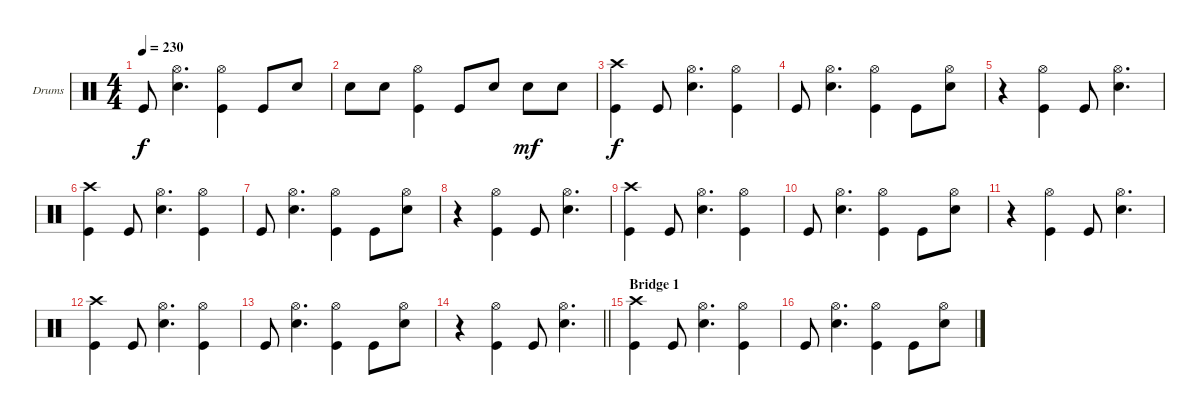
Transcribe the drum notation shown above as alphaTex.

\bracketExtendMode groupsimilarinstruments
\firstSystemTrackNameOrientation horizontal
\otherSystemsTrackNameOrientation horizontal
\track ("Drumkit" "Drums") {instrument percussion}
\staff {score}
\articulation defaults
\ts (4 4)
\tempo 230
\clef neutral
\ks c "Kick (hit)".8{dy f}
("Hi-Hat (open)" "Snare (hit) 2").4{d} ("Hi-Hat (open)" "Kick (hit)").4 "Kick (hit)".8 "Snare (hit) 2".8 |
"Snare (hit) 2".8 "Snare (hit) 2".8 ("Hi-Hat (open)" "Kick (hit)").4 "Kick (hit)".8 "Snare (hit) 2".8 "Snare (hit) 2".8{dy mf} "Snare (hit) 2".8 |
("Crash high (hit)" "Kick (hit)").4{dy f} "Kick (hit)".8 ("Hi-Hat (open)" "Snare (hit) 2").4{d} ("Hi-Hat (open)" "Kick (hit)").4 |
"Kick (hit)".8 ("Hi-Hat (open)" "Snare (hit) 2").4{d} ("Hi-Hat (open)" "Kick (hit)").4 "Kick (hit)".8 ("Hi-Hat (open)" "Snare (hit) 2").8 |
r.4 ("Hi-Hat (open)" "Kick (hit)").4 "Kick (hit)".8 ("Hi-Hat (open)" "Snare (hit) 2").4{d} |
("Crash high (hit)" "Kick (hit)").4 "Kick (hit)".8 ("Hi-Hat (open)" "Snare (hit) 2").4{d} ("Hi-Hat (open)" "Kick (hit)").4 |
"Kick (hit)".8 ("Hi-Hat (open)" "Snare (hit) 2").4{d} ("Hi-Hat (open)" "Kick (hit)").4 "Kick (hit)".8 ("Hi-Hat (open)" "Snare (hit) 2").8 |
r.4 ("Hi-Hat (open)" "Kick (hit)").4 "Kick (hit)".8 ("Hi-Hat (open)" "Snare (hit) 2").4{d} |
("Crash high (hit)" "Kick (hit)").4 "Kick (hit)".8 ("Hi-Hat (open)" "Snare (hit) 2").4{d} ("Hi-Hat (open)" "Kick (hit)").4 |
"Kick (hit)".8 ("Hi-Hat (open)" "Snare (hit) 2").4{d} ("Hi-Hat (open)" "Kick (hit)").4 "Kick (hit)".8 ("Hi-Hat (open)" "Snare (hit) 2").8 |
r.4 ("Hi-Hat (open)" "Kick (hit)").4 "Kick (hit)".8 ("Hi-Hat (open)" "Snare (hit) 2").4{d} |
("Crash high (hit)" "Kick (hit)").4 "Kick (hit)".8 ("Hi-Hat (open)" "Snare (hit) 2").4{d} ("Hi-Hat (open)" "Kick (hit)").4 |
"Kick (hit)".8 ("Hi-Hat (open)" "Snare (hit) 2").4{d} ("Hi-Hat (open)" "Kick (hit)").4 "Kick (hit)".8 ("Hi-Hat (open)" "Snare (hit) 2").8 |
\barLineRight lightlight
r.4 ("Hi-Hat (open)" "Kick (hit)").4 "Kick (hit)".8 ("Hi-Hat (open)" "Snare (hit) 2").4{d} |
\section ("" "Bridge 1")
("Crash high (hit)" "Kick (hit)").4 "Kick (hit)".8 ("Hi-Hat (open)" "Snare (hit) 2").4{d} ("Hi-Hat (open)" "Kick (hit)").4 |
"Kick (hit)".8 ("Hi-Hat (open)" "Snare (hit) 2").4{d} ("Hi-Hat (open)" "Kick (hit)").4 "Kick (hit)".8 ("Hi-Hat (open)" "Snare (hit) 2").8
